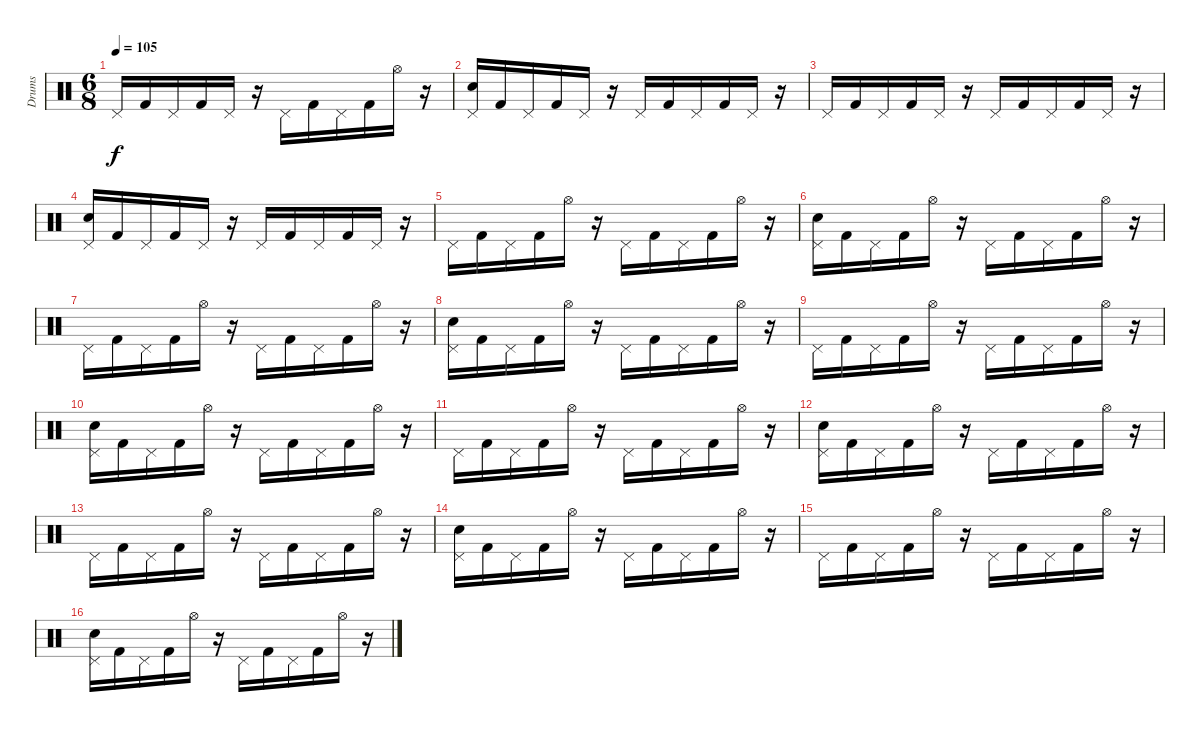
\track ("Drums" "Drums") {instrument percussion}
\staff {score}
\articulation defaults
\ts (6 8)
\tempo 105
\clef neutral
\ks c "Pedal Hi-Hat (hit)".16{dy f} "Kick (hit) 2".16 "Pedal Hi-Hat (hit)".16 "Kick (hit) 2".16 "Pedal Hi-Hat (hit)".16
r.16 "Pedal Hi-Hat (hit)".16 "Kick (hit) 2".16 "Pedal Hi-Hat (hit)".16 "Kick (hit) 2".16 "Hi-Hat (open)".16 r.16 |
("Pedal Hi-Hat (hit)" "Electric Snare (hit)").16 "Kick (hit) 2".16 "Pedal Hi-Hat (hit)".16 "Kick (hit) 2".16 "Pedal Hi-Hat (hit)".16 r.16 "Pedal Hi-Hat (hit)".16 "Kick (hit) 2".16 "Pedal Hi-Hat (hit)".16 "Kick (hit) 2".16 "Pedal Hi-Hat (hit)".16 r.16 |
"Pedal Hi-Hat (hit)".16 "Kick (hit) 2".16 "Pedal Hi-Hat (hit)".16 "Kick (hit) 2".16 "Pedal Hi-Hat (hit)".16 r.16 "Pedal Hi-Hat (hit)".16 "Kick (hit) 2".16 "Pedal Hi-Hat (hit)".16 "Kick (hit) 2".16 "Pedal Hi-Hat (hit)".16 r.16 |
("Pedal Hi-Hat (hit)" "Electric Snare (hit)").16 "Kick (hit) 2".16 "Pedal Hi-Hat (hit)".16 "Kick (hit) 2".16 "Pedal Hi-Hat (hit)".16 r.16 "Pedal Hi-Hat (hit)".16 "Kick (hit) 2".16 "Pedal Hi-Hat (hit)".16 "Kick (hit) 2".16 "Pedal Hi-Hat (hit)".16 r.16 |
"Pedal Hi-Hat (hit)".16 "Kick (hit) 2".16 "Pedal Hi-Hat (hit)".16 "Kick (hit) 2".16 "Hi-Hat (open)".16 r.16 "Pedal Hi-Hat (hit)".16 "Kick (hit) 2".16 "Pedal Hi-Hat (hit)".16 "Kick (hit) 2".16 "Hi-Hat (open)".16 r.16 |
("Pedal Hi-Hat (hit)" "Electric Snare (hit)").16 "Kick (hit) 2".16 "Pedal Hi-Hat (hit)".16 "Kick (hit) 2".16 "Hi-Hat (open)".16 r.16 "Pedal Hi-Hat (hit)".16 "Kick (hit) 2".16 "Pedal Hi-Hat (hit)".16 "Kick (hit) 2".16 "Hi-Hat (open)".16 r.16 |
"Pedal Hi-Hat (hit)".16 "Kick (hit) 2".16 "Pedal Hi-Hat (hit)".16 "Kick (hit) 2".16 "Hi-Hat (open)".16 r.16 "Pedal Hi-Hat (hit)".16 "Kick (hit) 2".16 "Pedal Hi-Hat (hit)".16 "Kick (hit) 2".16 "Hi-Hat (open)".16 r.16 |
("Pedal Hi-Hat (hit)" "Electric Snare (hit)").16 "Kick (hit) 2".16 "Pedal Hi-Hat (hit)".16 "Kick (hit) 2".16 "Hi-Hat (open)".16 r.16 "Pedal Hi-Hat (hit)".16 "Kick (hit) 2".16 "Pedal Hi-Hat (hit)".16 "Kick (hit) 2".16 "Hi-Hat (open)".16 r.16 |
"Pedal Hi-Hat (hit)".16 "Kick (hit) 2".16 "Pedal Hi-Hat (hit)".16 "Kick (hit) 2".16 "Hi-Hat (open)".16 r.16 "Pedal Hi-Hat (hit)".16 "Kick (hit) 2".16 "Pedal Hi-Hat (hit)".16 "Kick (hit) 2".16 "Hi-Hat (open)".16 r.16 |
("Pedal Hi-Hat (hit)" "Electric Snare (hit)").16 "Kick (hit) 2".16 "Pedal Hi-Hat (hit)".16 "Kick (hit) 2".16 "Hi-Hat (open)".16 r.16 "Pedal Hi-Hat (hit)".16 "Kick (hit) 2".16 "Pedal Hi-Hat (hit)".16 "Kick (hit) 2".16 "Hi-Hat (open)".16 r.16 |
"Pedal Hi-Hat (hit)".16 "Kick (hit) 2".16 "Pedal Hi-Hat (hit)".16 "Kick (hit) 2".16 "Hi-Hat (open)".16 r.16 "Pedal Hi-Hat (hit)".16 "Kick (hit) 2".16 "Pedal Hi-Hat (hit)".16 "Kick (hit) 2".16 "Hi-Hat (open)".16 r.16 |
("Pedal Hi-Hat (hit)" "Electric Snare (hit)").16 "Kick (hit) 2".16 "Pedal Hi-Hat (hit)".16 "Kick (hit) 2".16 "Hi-Hat (open)".16 r.16 "Pedal Hi-Hat (hit)".16 "Kick (hit) 2".16 "Pedal Hi-Hat (hit)".16 "Kick (hit) 2".16 "Hi-Hat (open)".16 r.16 |
"Pedal Hi-Hat (hit)".16 "Kick (hit) 2".16 "Pedal Hi-Hat (hit)".16 "Kick (hit) 2".16 "Hi-Hat (open)".16 r.16 "Pedal Hi-Hat (hit)".16 "Kick (hit) 2".16 "Pedal Hi-Hat (hit)".16 "Kick (hit) 2".16 "Hi-Hat (open)".16 r.16 |
("Pedal Hi-Hat (hit)" "Electric Snare (hit)").16 "Kick (hit) 2".16 "Pedal Hi-Hat (hit)".16 "Kick (hit) 2".16 "Hi-Hat (open)".16 r.16 "Pedal Hi-Hat (hit)".16 "Kick (hit) 2".16 "Pedal Hi-Hat (hit)".16 "Kick (hit) 2".16 "Hi-Hat (open)".16 r.16 |
"Pedal Hi-Hat (hit)".16 "Kick (hit) 2".16 "Pedal Hi-Hat (hit)".16 "Kick (hit) 2".16 "Hi-Hat (open)".16 r.16 "Pedal Hi-Hat (hit)".16 "Kick (hit) 2".16 "Pedal Hi-Hat (hit)".16 "Kick (hit) 2".16 "Hi-Hat (open)".16 r.16 |
("Pedal Hi-Hat (hit)" "Electric Snare (hit)").16 "Kick (hit) 2".16 "Pedal Hi-Hat (hit)".16 "Kick (hit) 2".16 "Hi-Hat (open)".16 r.16 "Pedal Hi-Hat (hit)".16 "Kick (hit) 2".16 "Pedal Hi-Hat (hit)".16 "Kick (hit) 2".16 "Hi-Hat (open)".16 r.16
